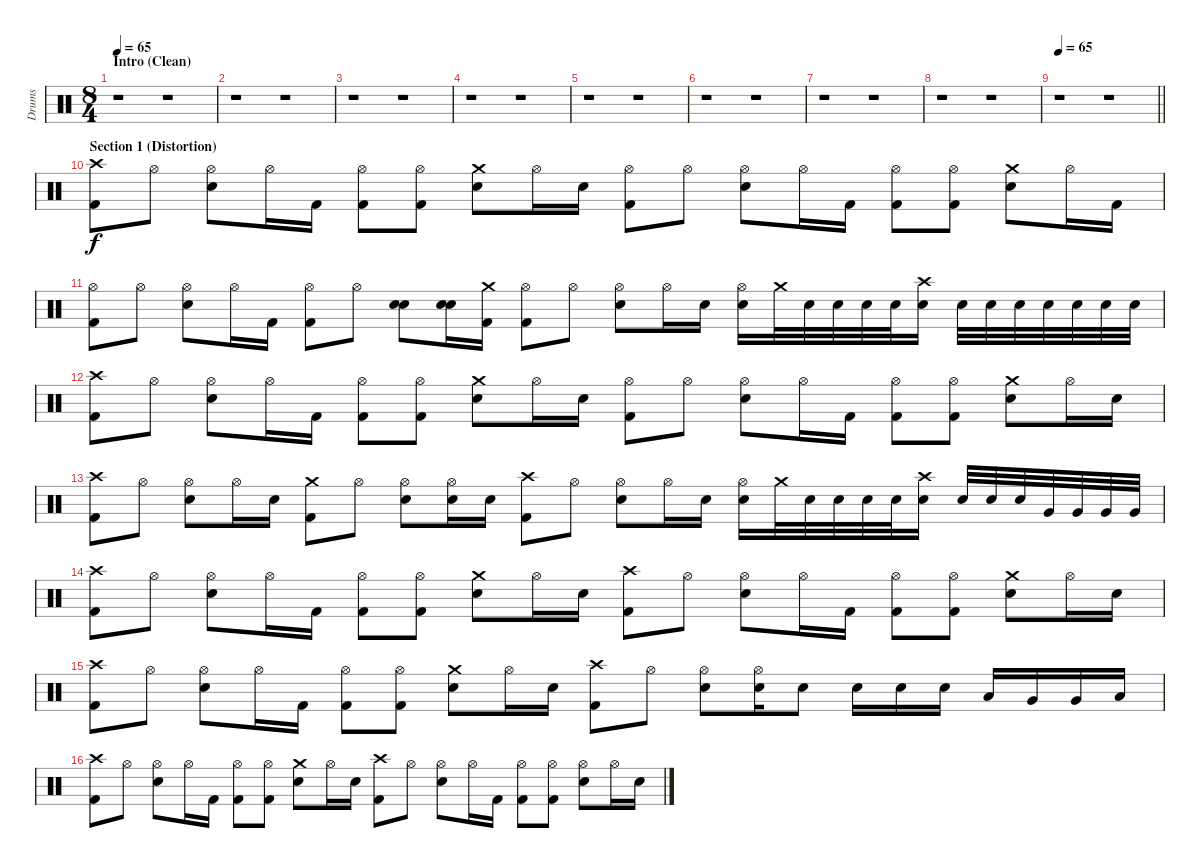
\track ("Drums" "Drums") {instrument percussion}
\staff {score}
\articulation defaults
\ts (8 4)
\section ("" "Intro (Clean)")
\tempo 65
\tempo 80
\tempo 65
\clef neutral
\ks c
r.1{dy f} r.1 |
r.1 r.1 |
r.1 r.1 |
r.1 r.1 |
r.1 r.1 |
r.1 r.1 |
r.1 r.1 |
r.1 r.1 |
\tempo 65
\barLineRight lightlight
r.1 r.1 |
\section ("" "Section 1 (Distortion)")
("Crash high (hit)" "Kick (hit) 2").8 "Hi-Hat (open)".8 ("Hi-Hat (open)" "Electric Snare (hit)").8 "Hi-Hat (open)".16 "Kick (hit) 2".16 ("Hi-Hat (open)" "Kick (hit) 2").8 ("Hi-Hat (open)" "Kick (hit) 2").8 ("Crash medium (hit)" "Electric Snare (hit)").8 "Hi-Hat (open)".16 "Electric Snare (hit)".16 ("Hi-Hat (open)" "Kick (hit) 2").8 "Hi-Hat (open)".8 ("Hi-Hat (open)" "Electric Snare (hit)").8 "Hi-Hat (open)".16 "Kick (hit) 2".16 ("Hi-Hat (open)" "Kick (hit) 2").8 ("Hi-Hat (open)" "Kick (hit) 2").8 ("Crash medium (hit)" "Electric Snare (hit)").8 "Hi-Hat (open)".16 "Kick (hit) 2".16 |
("Hi-Hat (open)" "Kick (hit) 2").8 "Hi-Hat (open)".8 ("Hi-Hat (open)" "Electric Snare (hit)").8 "Hi-Hat (open)".16 "Kick (hit) 2".16 ("Hi-Hat (open)" "Kick (hit) 2").8 "Hi-Hat (open)".8 ("Electric Snare (hit)" "Electric Snare (hit)").8{bu 60} ("Electric Snare (hit)" "Electric Snare (hit)").16{bu 60} ("Crash medium (hit)" "Kick (hit) 2").16 ("Hi-Hat (open)" "Kick (hit) 2").8 "Hi-Hat (open)".8 ("Hi-Hat (open)" "Electric Snare (hit)").8 "Hi-Hat (open)".16 "Electric Snare (hit)".16 ("Hi-Hat (open)" "Electric Snare (hit)").16 "Crash medium (hit)".32 "Electric Snare (hit)".32 "Electric Snare (hit)".32 "Electric Snare (hit)".32 "Electric Snare (hit)".32 ("Crash high (hit)" "Electric Snare (hit)").16 "Electric Snare (hit)".32 "Electric Snare (hit)".32 "Electric Snare (hit)".32 "Electric Snare (hit)".32 "Electric Snare (hit)".32 "Electric Snare (hit)".32 "Electric Snare (hit)".32 |
("Crash high (hit)" "Kick (hit) 2").8 "Hi-Hat (open)".8 ("Hi-Hat (open)" "Electric Snare (hit)").8 "Hi-Hat (open)".16 "Kick (hit) 2".16 ("Hi-Hat (open)" "Kick (hit) 2").8 ("Hi-Hat (open)" "Kick (hit) 2").8 ("Crash medium (hit)" "Electric Snare (hit)").8 "Hi-Hat (open)".16 "Electric Snare (hit)".16 ("Hi-Hat (open)" "Kick (hit) 2").8 "Hi-Hat (open)".8 ("Hi-Hat (open)" "Electric Snare (hit)").8 "Hi-Hat (open)".16 "Kick (hit) 2".16 ("Hi-Hat (open)" "Kick (hit) 2").8 ("Hi-Hat (open)" "Kick (hit) 2").8 ("Crash medium (hit)" "Electric Snare (hit)").8 "Hi-Hat (open)".16 "Electric Snare (hit)".16 |
("Crash high (hit)" "Kick (hit) 2").8 "Hi-Hat (open)".8 ("Hi-Hat (open)" "Electric Snare (hit)").8 "Hi-Hat (open)".16 "Electric Snare (hit)".16 ("Crash medium (hit)" "Kick (hit) 2").8 "Hi-Hat (open)".8 ("Hi-Hat (open)" "Electric Snare (hit)").8 ("Hi-Hat (open)" "Electric Snare (hit)").16 "Electric Snare (hit)".16 ("Crash high (hit)" "Kick (hit) 2").8 "Hi-Hat (open)".8 ("Hi-Hat (open)" "Electric Snare (hit)").8 "Hi-Hat (open)".16 "Electric Snare (hit)".16 ("Hi-Hat (open)" "Electric Snare (hit)").16 "Crash medium (hit)".32 "Electric Snare (hit)".32 "Electric Snare (hit)".32 "Electric Snare (hit)".32 "Electric Snare (hit)".32 ("Crash high (hit)" "Electric Snare (hit)").16 "Electric Snare (hit)".32 "Electric Snare (hit)".32 "Electric Snare (hit)".32 "Very Low Tom (hit)".32 "Very Low Tom (hit)".32 "Very Low Tom (hit)".32 "Very Low Tom (hit)".32 |
("Crash high (hit)" "Kick (hit) 2").8 "Hi-Hat (open)".8 ("Hi-Hat (open)" "Electric Snare (hit)").8 "Hi-Hat (open)".16 "Kick (hit) 2".16 ("Hi-Hat (open)" "Kick (hit) 2").8 ("Hi-Hat (open)" "Kick (hit) 2").8 ("Crash medium (hit)" "Electric Snare (hit)").8 "Hi-Hat (open)".16 "Electric Snare (hit)".16 ("Crash high (hit)" "Kick (hit) 2").8 "Hi-Hat (open)".8 ("Hi-Hat (open)" "Electric Snare (hit)").8 "Hi-Hat (open)".16 "Kick (hit) 2".16 ("Hi-Hat (open)" "Kick (hit) 2").8 ("Hi-Hat (open)" "Kick (hit) 2").8 ("Crash medium (hit)" "Electric Snare (hit)").8 "Hi-Hat (open)".16 "Electric Snare (hit)".16 |
("Crash high (hit)" "Kick (hit) 2").8 "Hi-Hat (open)".8 ("Hi-Hat (open)" "Electric Snare (hit)").8 "Hi-Hat (open)".16 "Kick (hit) 2".16 ("Hi-Hat (open)" "Kick (hit) 2").8 ("Hi-Hat (open)" "Kick (hit) 2").8 ("Crash medium (hit)" "Electric Snare (hit)").8 "Hi-Hat (open)".16 "Electric Snare (hit)".16 ("Crash high (hit)" "Kick (hit) 2").8 "Hi-Hat (open)".8 ("Hi-Hat (open)" "Electric Snare (hit)").8 ("Hi-Hat (open)" "Electric Snare (hit)").16 "Electric Snare (hit)".8 "Electric Snare (hit)".16 "Electric Snare (hit)".16 "Electric Snare (hit)".16 "Low Tom (hit)".16 "Very Low Tom (hit)".16 "Very Low Tom (hit)".16 "Low Floor Tom (hit)".16 |
("Crash high (hit)" "Kick (hit) 2").8 "Hi-Hat (open)".8 ("Hi-Hat (open)" "Electric Snare (hit)").8 "Hi-Hat (open)".16 "Kick (hit) 2".16 ("Hi-Hat (open)" "Kick (hit) 2").8 ("Hi-Hat (open)" "Kick (hit) 2").8 ("Crash medium (hit)" "Electric Snare (hit)").8 "Hi-Hat (open)".16 "Electric Snare (hit)".16 ("Crash high (hit)" "Kick (hit) 2").8 "Hi-Hat (open)".8 ("Hi-Hat (open)" "Electric Snare (hit)").8 "Hi-Hat (open)".16 "Kick (hit) 2".16 ("Hi-Hat (open)" "Kick (hit) 2").8 ("Hi-Hat (open)" "Kick (hit) 2").8 ("Hi-Hat (open)" "Electric Snare (hit)").8 "Hi-Hat (open)".16 "Electric Snare (hit)".16
